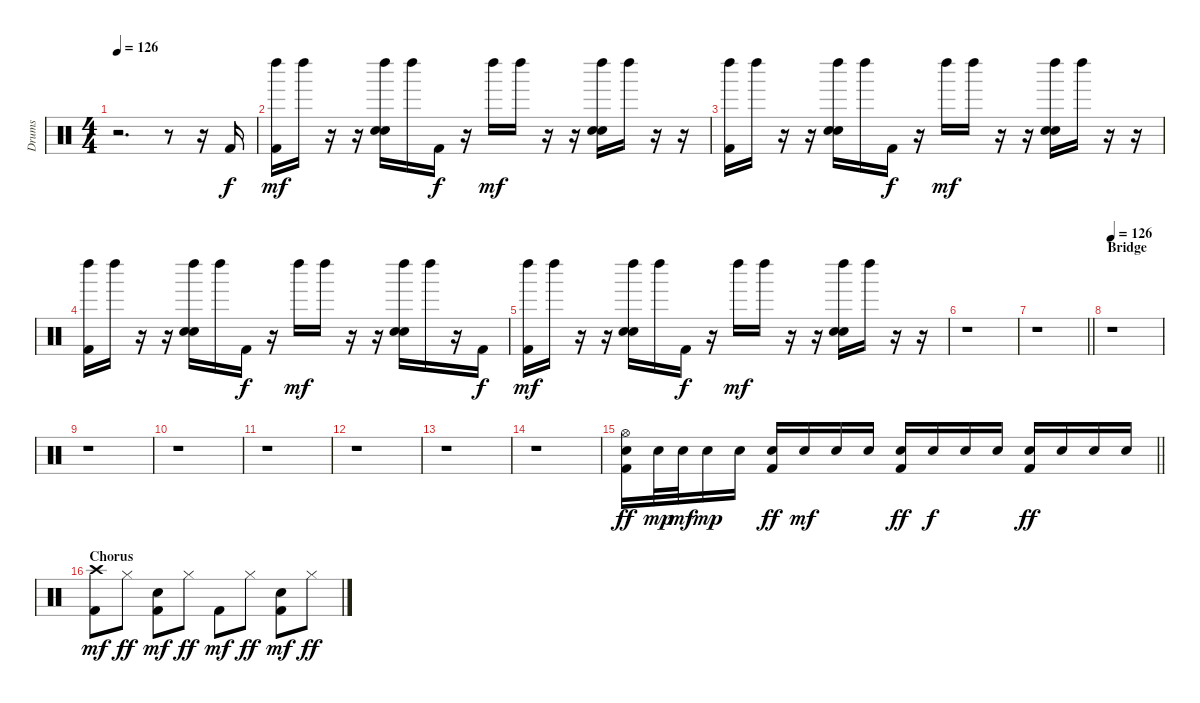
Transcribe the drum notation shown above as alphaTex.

\track ("Drums" "Drums") {instrument percussion}
\staff {score}
\articulation defaults
\ts (4 4)
\tempo 126
\clef neutral
\ks c
r.2{d dy mf} r.8 r.16 "Kick (hit) 2".16{dy f} |
("Left Maraca (hit)" "Kick (hit) 2").16{dy mf} "Left Maraca (hit)".16 r.16 r.16 ("Left Maraca (hit)" "Snare (hit) 2" "Hand Clap (hit)").16 "Left Maraca (hit)".16 "Kick (hit) 2".16{dy f} r.16 "Left Maraca (hit)".16{dy mf} "Left Maraca (hit)".16 r.16 r.16 ("Left Maraca (hit)" "Snare (hit) 2" "Hand Clap (hit)").16 "Left Maraca (hit)".16 r.16 r.16 |
("Left Maraca (hit)" "Kick (hit) 2").16 "Left Maraca (hit)".16 r.16 r.16 ("Left Maraca (hit)" "Snare (hit) 2" "Hand Clap (hit)").16 "Left Maraca (hit)".16 "Kick (hit) 2".16{dy f} r.16 "Left Maraca (hit)".16{dy mf} "Left Maraca (hit)".16 r.16 r.16 ("Left Maraca (hit)" "Snare (hit) 2" "Hand Clap (hit)").16 "Left Maraca (hit)".16 r.16 r.16 |
("Left Maraca (hit)" "Kick (hit) 2").16 "Left Maraca (hit)".16 r.16 r.16 ("Left Maraca (hit)" "Snare (hit) 2" "Hand Clap (hit)").16 "Left Maraca (hit)".16 "Kick (hit) 2".16{dy f} r.16 "Left Maraca (hit)".16{dy mf} "Left Maraca (hit)".16 r.16 r.16 ("Left Maraca (hit)" "Snare (hit) 2" "Hand Clap (hit)").16 "Left Maraca (hit)".16 r.16 "Kick (hit) 2".16{dy f} |
("Left Maraca (hit)" "Kick (hit) 2").16{dy mf} "Left Maraca (hit)".16 r.16 r.16 ("Left Maraca (hit)" "Snare (hit) 2" "Hand Clap (hit)").16 "Left Maraca (hit)".16 "Kick (hit) 2".16{dy f} r.16 "Left Maraca (hit)".16{dy mf} "Left Maraca (hit)".16 r.16 r.16 ("Left Maraca (hit)" "Snare (hit) 2" "Hand Clap (hit)").16 "Left Maraca (hit)".16 r.16 r.16 |
r.1 |
\barLineRight lightlight
r.1 |
\section ("" "Bridge")
\tempo 126
r.1 |
r.1 |
r.1 |
r.1 |
r.1 |
r.1 |
r.1 |
\barLineRight lightlight
("Hi-Hat (open)" "Snare (hit) 2" "Kick (hit) 2").16{dy ff} "Snare (hit) 2".32{dy mp} "Snare (hit) 2".32{dy mf} "Snare (hit) 2".16{dy mp} "Snare (hit) 2".16 ("Snare (hit) 2" "Kick (hit) 2").16{dy ff} "Snare (hit) 2".16{dy mf} "Snare (hit) 2".16 "Snare (hit) 2".16 ("Snare (hit) 2" "Kick (hit) 2").16{dy ff} "Snare (hit) 2".16{dy f} "Snare (hit) 2".16 "Snare (hit) 2".16 ("Snare (hit) 2" "Kick (hit) 2").16{dy ff} "Snare (hit) 2".16 "Snare (hit) 2".16 "Snare (hit) 2".16 |
\section ("" "Chorus")
("Crash high (hit)" "Kick (hit) 2").8{dy mf} "Hi-Hat (closed)".8{dy ff} ("Electric Snare (hit)" "Kick (hit) 2").8{dy mf} "Hi-Hat (closed)".8{dy ff} "Kick (hit) 2".8{dy mf} "Hi-Hat (closed)".8{dy ff} ("Electric Snare (hit)" "Kick (hit) 2").8{dy mf} "Hi-Hat (closed)".8{dy ff}
